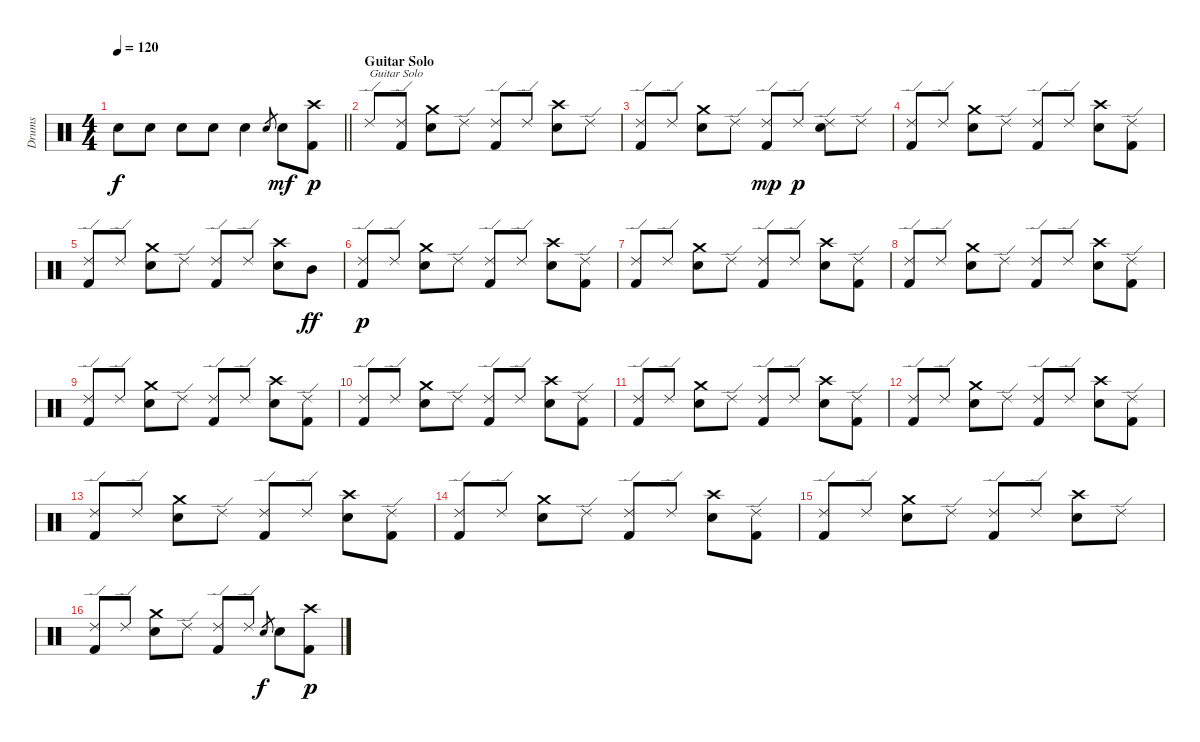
\track ("Drums" "Drums") {instrument percussion}
\staff {score}
\articulation defaults
\ts (4 4)
\tempo 120
\clef neutral
\barLineRight lightlight
\ks c "Electric Snare (hit)".8{dy f} "Electric Snare (hit)".8 "Electric Snare (hit)".8 "Electric Snare (hit)".8 "Electric Snare (hit)".4 "Electric Snare (hit)".8{gr} "Electric Snare (hit)".8{dy mf}
("Kick (hit) 2" "Crash high (hit)").8{dy p} |
\section ("" "Guitar Solo")
"Ride (edge) 2".8{txt "Guitar Solo"} ("Ride (edge) 2" "Kick (hit) 2").8 ("Crash medium (hit)" "Electric Snare (hit)").8 "Ride (edge) 2".8 ("Ride (edge) 2" "Kick (hit) 2").8 "Ride (edge) 2".8 ("Crash high (hit)" "Electric Snare (hit)").8 "Ride (edge) 2".8 |
("Ride (edge) 2" "Kick (hit) 2").8 "Ride (edge) 2".8 ("Crash medium (hit)" "Electric Snare (hit)").8 "Ride (edge) 2".8 ("Ride (edge) 2" "Kick (hit) 2").8{dy mp} "Ride (edge) 2".8{dy p} ("Ride (edge) 2" "Electric Snare (hit)").8 "Ride (edge) 2".8 |
("Ride (edge) 2" "Kick (hit) 2").8 "Ride (edge) 2".8 ("Crash medium (hit)" "Electric Snare (hit)").8 "Ride (edge) 2".8 ("Ride (edge) 2" "Kick (hit) 2").8 "Ride (edge) 2".8 ("Crash high (hit)" "Electric Snare (hit)").8 ("Ride (edge) 2" "Kick (hit) 2").8 |
("Ride (edge) 2" "Kick (hit) 2").8 "Ride (edge) 2".8 ("Crash medium (hit)" "Electric Snare (hit)").8 "Ride (edge) 2".8 ("Ride (edge) 2" "Kick (hit) 2").8 "Ride (edge) 2".8 ("Crash high (hit)" "Electric Snare (hit)").8 "Mid Tom (hit)".8{dy ff} |
("Ride (edge) 2" "Kick (hit) 2").8{dy p} "Ride (edge) 2".8 ("Crash medium (hit)" "Electric Snare (hit)").8 "Ride (edge) 2".8 ("Ride (edge) 2" "Kick (hit) 2").8 "Ride (edge) 2".8 ("Crash high (hit)" "Electric Snare (hit)").8 ("Ride (edge) 2" "Kick (hit) 2").8 |
("Ride (edge) 2" "Kick (hit) 2").8 "Ride (edge) 2".8 ("Crash medium (hit)" "Electric Snare (hit)").8 "Ride (edge) 2".8 ("Ride (edge) 2" "Kick (hit) 2").8 "Ride (edge) 2".8 ("Crash high (hit)" "Electric Snare (hit)").8 ("Ride (edge) 2" "Kick (hit) 2").8 |
("Ride (edge) 2" "Kick (hit) 2").8 "Ride (edge) 2".8 ("Crash medium (hit)" "Electric Snare (hit)").8 "Ride (edge) 2".8 ("Ride (edge) 2" "Kick (hit) 2").8 "Ride (edge) 2".8 ("Crash high (hit)" "Electric Snare (hit)").8 ("Ride (edge) 2" "Kick (hit) 2").8 |
("Ride (edge) 2" "Kick (hit) 2").8 "Ride (edge) 2".8 ("Crash medium (hit)" "Electric Snare (hit)").8 "Ride (edge) 2".8 ("Ride (edge) 2" "Kick (hit) 2").8 "Ride (edge) 2".8 ("Crash high (hit)" "Electric Snare (hit)").8 ("Ride (edge) 2" "Kick (hit) 2").8 |
("Ride (edge) 2" "Kick (hit) 2").8 "Ride (edge) 2".8 ("Crash medium (hit)" "Electric Snare (hit)").8 "Ride (edge) 2".8 ("Ride (edge) 2" "Kick (hit) 2").8 "Ride (edge) 2".8 ("Crash high (hit)" "Electric Snare (hit)").8 ("Ride (edge) 2" "Kick (hit) 2").8 |
("Ride (edge) 2" "Kick (hit) 2").8 "Ride (edge) 2".8 ("Crash medium (hit)" "Electric Snare (hit)").8 "Ride (edge) 2".8 ("Ride (edge) 2" "Kick (hit) 2").8 "Ride (edge) 2".8 ("Crash high (hit)" "Electric Snare (hit)").8 ("Ride (edge) 2" "Kick (hit) 2").8 |
("Ride (edge) 2" "Kick (hit) 2").8 "Ride (edge) 2".8 ("Crash medium (hit)" "Electric Snare (hit)").8 "Ride (edge) 2".8 ("Ride (edge) 2" "Kick (hit) 2").8 "Ride (edge) 2".8 ("Crash high (hit)" "Electric Snare (hit)").8 ("Ride (edge) 2" "Kick (hit) 2").8 |
("Ride (edge) 2" "Kick (hit) 2").8 "Ride (edge) 2".8 ("Crash medium (hit)" "Electric Snare (hit)").8 "Ride (edge) 2".8 ("Ride (edge) 2" "Kick (hit) 2").8 "Ride (edge) 2".8 ("Crash high (hit)" "Electric Snare (hit)").8 ("Ride (edge) 2" "Kick (hit) 2").8 |
("Ride (edge) 2" "Kick (hit) 2").8 "Ride (edge) 2".8 ("Crash medium (hit)" "Electric Snare (hit)").8 "Ride (edge) 2".8 ("Ride (edge) 2" "Kick (hit) 2").8 "Ride (edge) 2".8 ("Crash high (hit)" "Electric Snare (hit)").8 ("Ride (edge) 2" "Kick (hit) 2").8 |
("Ride (edge) 2" "Kick (hit) 2").8 "Ride (edge) 2".8 ("Crash medium (hit)" "Electric Snare (hit)").8 "Ride (edge) 2".8 ("Ride (edge) 2" "Kick (hit) 2").8 "Ride (edge) 2".8 ("Crash high (hit)" "Electric Snare (hit)").8 "Ride (edge) 2".8 |
("Ride (edge) 2" "Kick (hit) 2").8 "Ride (edge) 2".8 ("Crash medium (hit)" "Electric Snare (hit)").8 "Ride (edge) 2".8 ("Ride (edge) 2" "Kick (hit) 2").8 "Ride (edge) 2".8 "Electric Snare (hit)".8{gr dy f} "Electric Snare (hit)".8 ("Crash high (hit)" "Kick (hit) 2").8{dy p}
